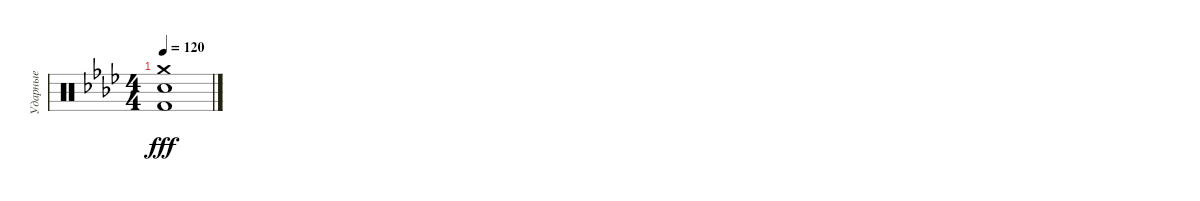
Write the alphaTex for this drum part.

\track ("Ударные" "Ударные") {instrument percussion}
\staff {score}
\articulation defaults
\ts (4 4)
\tempo 120
\clef neutral
\ks ab
("Crash medium (hit)" "Kick (hit) 2" "Snare (hit) 2").1{dy fff}
